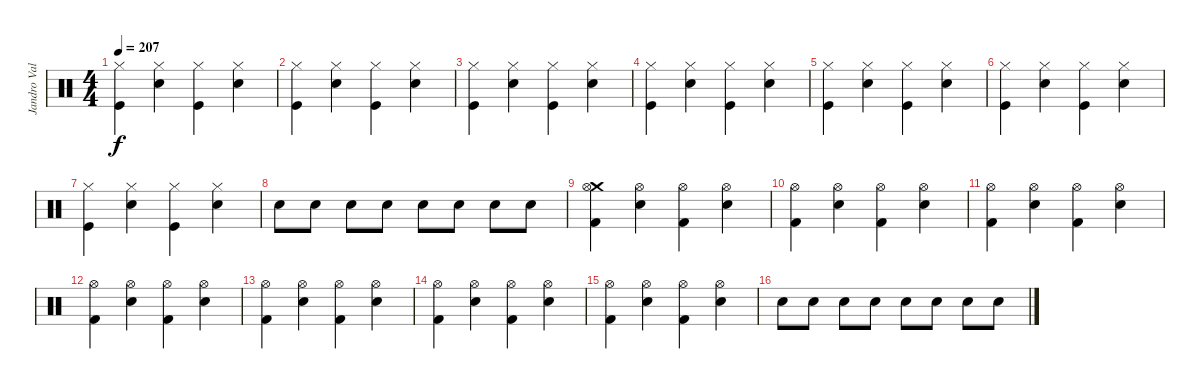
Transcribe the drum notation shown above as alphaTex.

\track ("Jandro Valázquez" "Jandro Val") {instrument percussion}
\staff {score}
\articulation defaults
\ts (4 4)
\tempo 207
\clef neutral
\ks c
("Hi-Hat (closed)" "Kick (hit)").4{dy f} ("Hi-Hat (closed)" "Snare (hit) 2").4 ("Hi-Hat (closed)" "Kick (hit)").4 ("Hi-Hat (closed)" "Snare (hit) 2").4 |
("Hi-Hat (closed)" "Kick (hit)").4 ("Hi-Hat (closed)" "Snare (hit) 2").4 ("Hi-Hat (closed)" "Kick (hit)").4 ("Hi-Hat (closed)" "Snare (hit) 2").4 |
("Hi-Hat (closed)" "Kick (hit)").4 ("Hi-Hat (closed)" "Snare (hit) 2").4 ("Hi-Hat (closed)" "Kick (hit)").4 ("Hi-Hat (closed)" "Snare (hit) 2").4 |
("Hi-Hat (closed)" "Kick (hit)").4 ("Hi-Hat (closed)" "Snare (hit) 2").4 ("Hi-Hat (closed)" "Kick (hit)").4 ("Hi-Hat (closed)" "Snare (hit) 2").4 |
("Hi-Hat (closed)" "Kick (hit)").4 ("Hi-Hat (closed)" "Snare (hit) 2").4 ("Hi-Hat (closed)" "Kick (hit)").4 ("Hi-Hat (closed)" "Snare (hit) 2").4 |
("Hi-Hat (closed)" "Kick (hit)").4 ("Hi-Hat (closed)" "Snare (hit) 2").4 ("Hi-Hat (closed)" "Kick (hit)").4 ("Hi-Hat (closed)" "Snare (hit) 2").4 |
("Hi-Hat (closed)" "Kick (hit)").4 ("Hi-Hat (closed)" "Snare (hit) 2").4 ("Hi-Hat (closed)" "Kick (hit)").4 ("Hi-Hat (closed)" "Snare (hit) 2").4 |
"Electric Snare (hit)".8 "Electric Snare (hit)".8 "Electric Snare (hit)".8 "Electric Snare (hit)".8 "Electric Snare (hit)".8 "Electric Snare (hit)".8 "Electric Snare (hit)".8 "Electric Snare (hit)".8 |
("Crash medium (hit)" "Hi-Hat (open)" "Kick (hit) 2").4 ("Hi-Hat (open)" "Snare (hit) 2").4 ("Hi-Hat (open)" "Kick (hit) 2").4 ("Hi-Hat (open)" "Snare (hit) 2").4 |
("Hi-Hat (open)" "Kick (hit) 2").4 ("Hi-Hat (open)" "Snare (hit) 2").4 ("Hi-Hat (open)" "Kick (hit) 2").4 ("Hi-Hat (open)" "Snare (hit) 2").4 |
("Hi-Hat (open)" "Kick (hit) 2").4 ("Hi-Hat (open)" "Snare (hit) 2").4 ("Hi-Hat (open)" "Kick (hit) 2").4 ("Hi-Hat (open)" "Snare (hit) 2").4 |
("Hi-Hat (open)" "Kick (hit) 2").4 ("Hi-Hat (open)" "Snare (hit) 2").4 ("Hi-Hat (open)" "Kick (hit) 2").4 ("Hi-Hat (open)" "Snare (hit) 2").4 |
("Hi-Hat (open)" "Kick (hit) 2").4 ("Hi-Hat (open)" "Snare (hit) 2").4 ("Hi-Hat (open)" "Kick (hit) 2").4 ("Hi-Hat (open)" "Snare (hit) 2").4 |
("Hi-Hat (open)" "Kick (hit) 2").4 ("Hi-Hat (open)" "Snare (hit) 2").4 ("Hi-Hat (open)" "Kick (hit) 2").4 ("Hi-Hat (open)" "Snare (hit) 2").4 |
("Hi-Hat (open)" "Kick (hit) 2").4 ("Hi-Hat (open)" "Snare (hit) 2").4 ("Hi-Hat (open)" "Kick (hit) 2").4 ("Hi-Hat (open)" "Snare (hit) 2").4 |
"Electric Snare (hit)".8 "Electric Snare (hit)".8 "Electric Snare (hit)".8 "Electric Snare (hit)".8 "Electric Snare (hit)".8 "Electric Snare (hit)".8 "Electric Snare (hit)".8 "Electric Snare (hit)".8
